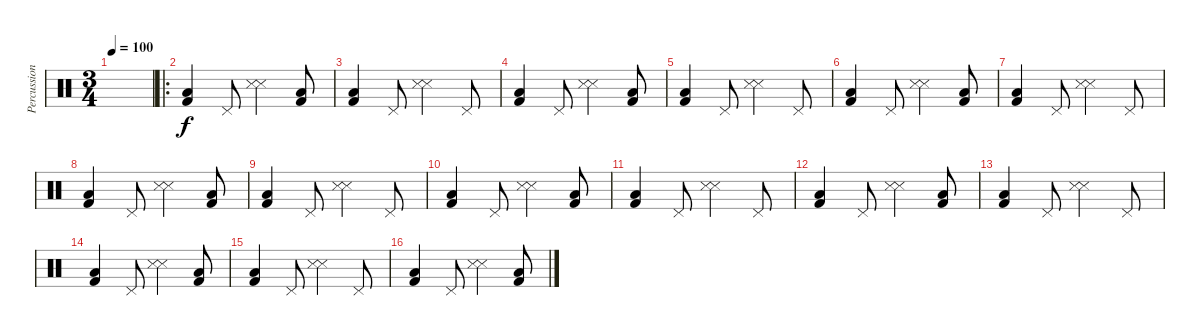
\track ("Percussions" "Percussion") {instrument percussion}
\staff {score}
\articulation defaults
\ts (3 4)
\tempo 100
\clef neutral
\ks c
|
\ro
("Kick (hit) 2" "Low Floor Tom (hit)").4 "Pedal Hi-Hat (hit)".8 ("Snare (side stick) 3" "Snare (side stick) 3").4 ("Kick (hit) 2" "Low Floor Tom (hit)").8 |
("Kick (hit) 2" "Low Floor Tom (hit)").4 "Pedal Hi-Hat (hit)".8 ("Snare (side stick) 3" "Snare (side stick) 3").4 "Pedal Hi-Hat (hit)".8 |
("Kick (hit) 2" "Low Floor Tom (hit)").4 "Pedal Hi-Hat (hit)".8 ("Snare (side stick) 3" "Snare (side stick) 3").4 ("Kick (hit) 2" "Low Floor Tom (hit)").8 |
("Kick (hit) 2" "Low Floor Tom (hit)").4 "Pedal Hi-Hat (hit)".8 ("Snare (side stick) 3" "Snare (side stick) 3").4 "Pedal Hi-Hat (hit)".8 |
("Kick (hit) 2" "Low Floor Tom (hit)").4 "Pedal Hi-Hat (hit)".8 ("Snare (side stick) 3" "Snare (side stick) 3").4 ("Kick (hit) 2" "Low Floor Tom (hit)").8 |
("Kick (hit) 2" "Low Floor Tom (hit)").4 "Pedal Hi-Hat (hit)".8 ("Snare (side stick) 3" "Snare (side stick) 3").4 "Pedal Hi-Hat (hit)".8 |
("Kick (hit) 2" "Low Floor Tom (hit)").4 "Pedal Hi-Hat (hit)".8 ("Snare (side stick) 3" "Snare (side stick) 3").4 ("Kick (hit) 2" "Low Floor Tom (hit)").8 |
("Kick (hit) 2" "Low Floor Tom (hit)").4 "Pedal Hi-Hat (hit)".8 ("Snare (side stick) 3" "Snare (side stick) 3").4 "Pedal Hi-Hat (hit)".8 |
("Kick (hit) 2" "Low Floor Tom (hit)").4 "Pedal Hi-Hat (hit)".8 ("Snare (side stick) 3" "Snare (side stick) 3").4 ("Kick (hit) 2" "Low Floor Tom (hit)").8 |
("Kick (hit) 2" "Low Floor Tom (hit)").4 "Pedal Hi-Hat (hit)".8 ("Snare (side stick) 3" "Snare (side stick) 3").4 "Pedal Hi-Hat (hit)".8 |
("Kick (hit) 2" "Low Floor Tom (hit)").4 "Pedal Hi-Hat (hit)".8 ("Snare (side stick) 3" "Snare (side stick) 3").4 ("Kick (hit) 2" "Low Floor Tom (hit)").8 |
("Kick (hit) 2" "Low Floor Tom (hit)").4 "Pedal Hi-Hat (hit)".8 ("Snare (side stick) 3" "Snare (side stick) 3").4 "Pedal Hi-Hat (hit)".8 |
("Kick (hit) 2" "Low Floor Tom (hit)").4 "Pedal Hi-Hat (hit)".8 ("Snare (side stick) 3" "Snare (side stick) 3").4 ("Kick (hit) 2" "Low Floor Tom (hit)").8 |
("Kick (hit) 2" "Low Floor Tom (hit)").4 "Pedal Hi-Hat (hit)".8 ("Snare (side stick) 3" "Snare (side stick) 3").4 "Pedal Hi-Hat (hit)".8 |
("Kick (hit) 2" "Low Floor Tom (hit)").4 "Pedal Hi-Hat (hit)".8 ("Snare (side stick) 3" "Snare (side stick) 3").4 ("Kick (hit) 2" "Low Floor Tom (hit)").8
